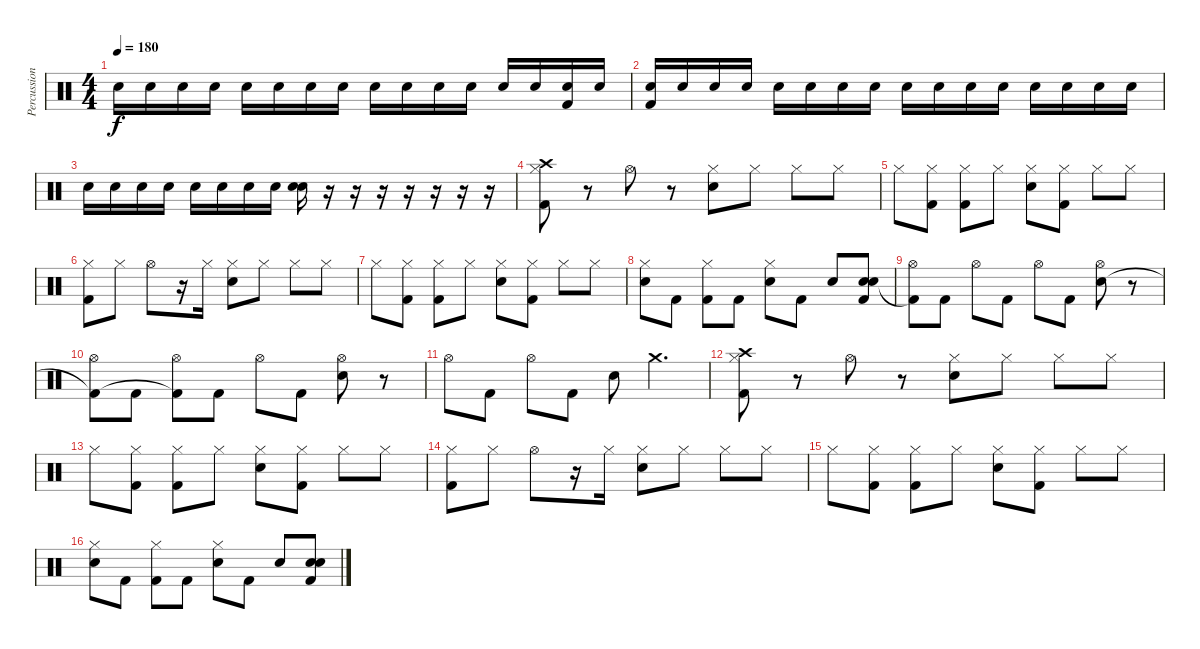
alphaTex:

\track ("Percussion" "Percussion") {instrument percussion}
\staff {score}
\articulation defaults
\ts (4 4)
\tempo 180
\clef neutral
\ks c "Snare (hit) 2".16{dy f} "Snare (hit) 2".16 "Snare (hit) 2".16 "Snare (hit) 2".16 "Snare (hit) 2".16 "Snare (hit) 2".16 "Snare (hit) 2".16 "Snare (hit) 2".16 "Snare (hit) 2".16 "Snare (hit) 2".16 "Snare (hit) 2".16 "Snare (hit) 2".16 "Snare (hit) 2".16 "Snare (hit) 2".16
("Snare (hit) 2" "Kick (hit) 2").16 "Snare (hit) 2".16 |
("Snare (hit) 2" "Kick (hit) 2").16 "Snare (hit) 2".16 "Snare (hit) 2".16 "Snare (hit) 2".16 "Snare (hit) 2".16 "Snare (hit) 2".16 "Snare (hit) 2".16 "Snare (hit) 2".16 "Snare (hit) 2".16 "Snare (hit) 2".16 "Snare (hit) 2".16 "Snare (hit) 2".16 "Snare (hit) 2".16 "Snare (hit) 2".16 "Snare (hit) 2".16 "Snare (hit) 2".16 |
"Snare (hit) 2".16 "Snare (hit) 2".16 "Snare (hit) 2".16 "Snare (hit) 2".16 "Snare (hit) 2".16 "Snare (hit) 2".16 "Snare (hit) 2".16 "Snare (hit) 2".16 ("Snare (hit) 2" "Snare (hit) 2").16 r.16 r.16 r.16 r.16 r.16 r.16 r.16 |
("Crash high (hit)" "Hi-Hat (closed)" "Kick (hit) 2").8 r.8 "Hi-Hat (open)".8 r.8 ("Hi-Hat (closed)" "Snare (hit) 2").8 "Hi-Hat (closed)".8 "Hi-Hat (closed)".8 "Hi-Hat (closed)".8 |
"Hi-Hat (closed)".8 ("Hi-Hat (closed)" "Kick (hit) 2").8 ("Hi-Hat (closed)" "Kick (hit) 2").8 "Hi-Hat (closed)".8 ("Hi-Hat (closed)" "Snare (hit) 2").8 ("Hi-Hat (closed)" "Kick (hit) 2").8 "Hi-Hat (closed)".8 "Hi-Hat (closed)".8 |
("Hi-Hat (closed)" "Kick (hit) 2").8 "Hi-Hat (closed)".8 "Hi-Hat (open)".8 r.16 "Hi-Hat (closed)".16 ("Hi-Hat (closed)" "Snare (hit) 2").8 "Hi-Hat (closed)".8 "Hi-Hat (closed)".8 "Hi-Hat (closed)".8 |
"Hi-Hat (closed)".8 ("Hi-Hat (closed)" "Kick (hit) 2").8 ("Hi-Hat (closed)" "Kick (hit) 2").8 "Hi-Hat (closed)".8 ("Hi-Hat (closed)" "Snare (hit) 2").8 ("Hi-Hat (closed)" "Kick (hit) 2").8 "Hi-Hat (closed)".8 "Hi-Hat (closed)".8 |
("Hi-Hat (closed)" "Snare (hit) 2").8 "Kick (hit) 2".8 ("Hi-Hat (closed)" "Kick (hit) 2").8 "Kick (hit) 2".8 ("Hi-Hat (closed)" "Snare (hit) 2").8 "Kick (hit) 2".8 "Snare (hit) 2".8 ("Snare (hit) 2" "Snare (hit) 2" "Kick (hit) 2").8 |
("Hi-Hat (open)" "Kick (hit) 2"{t}).8 "Kick (hit) 2".8 "Hi-Hat (open)".8 "Kick (hit) 2".8 "Hi-Hat (open)".8 "Kick (hit) 2".8 ("Hi-Hat (open)" "Snare (hit) 2").8 r.8 |
("Hi-Hat (open)" "Kick (hit) 2"{t}).8 "Kick (hit) 2".8 ("Hi-Hat (open)" "Kick (hit) 2"{t}).8 "Kick (hit) 2".8 "Hi-Hat (open)".8 "Kick (hit) 2".8 ("Hi-Hat (open)" "Snare (hit) 2").8 r.8 |
"Hi-Hat (open)".8 "Kick (hit) 2".8 "Hi-Hat (open)".8 "Kick (hit) 2".8 "Snare (hit) 2".8 "Crash medium (hit)".4{d} |
("Crash high (hit)" "Hi-Hat (closed)" "Kick (hit) 2").8 r.8 "Hi-Hat (open)".8 r.8 ("Hi-Hat (closed)" "Snare (hit) 2").8 "Hi-Hat (closed)".8 "Hi-Hat (closed)".8 "Hi-Hat (closed)".8 |
"Hi-Hat (closed)".8 ("Hi-Hat (closed)" "Kick (hit) 2").8 ("Hi-Hat (closed)" "Kick (hit) 2").8 "Hi-Hat (closed)".8 ("Hi-Hat (closed)" "Snare (hit) 2").8 ("Hi-Hat (closed)" "Kick (hit) 2").8 "Hi-Hat (closed)".8 "Hi-Hat (closed)".8 |
("Hi-Hat (closed)" "Kick (hit) 2").8 "Hi-Hat (closed)".8 "Hi-Hat (open)".8 r.16 "Hi-Hat (closed)".16 ("Hi-Hat (closed)" "Snare (hit) 2").8 "Hi-Hat (closed)".8 "Hi-Hat (closed)".8 "Hi-Hat (closed)".8 |
"Hi-Hat (closed)".8 ("Hi-Hat (closed)" "Kick (hit) 2").8 ("Hi-Hat (closed)" "Kick (hit) 2").8 "Hi-Hat (closed)".8 ("Hi-Hat (closed)" "Snare (hit) 2").8 ("Hi-Hat (closed)" "Kick (hit) 2").8 "Hi-Hat (closed)".8 "Hi-Hat (closed)".8 |
("Hi-Hat (closed)" "Snare (hit) 2").8 "Kick (hit) 2".8 ("Hi-Hat (closed)" "Kick (hit) 2").8 "Kick (hit) 2".8 ("Hi-Hat (closed)" "Snare (hit) 2").8 "Kick (hit) 2".8 "Snare (hit) 2".8 ("Snare (hit) 2" "Snare (hit) 2" "Kick (hit) 2").8
